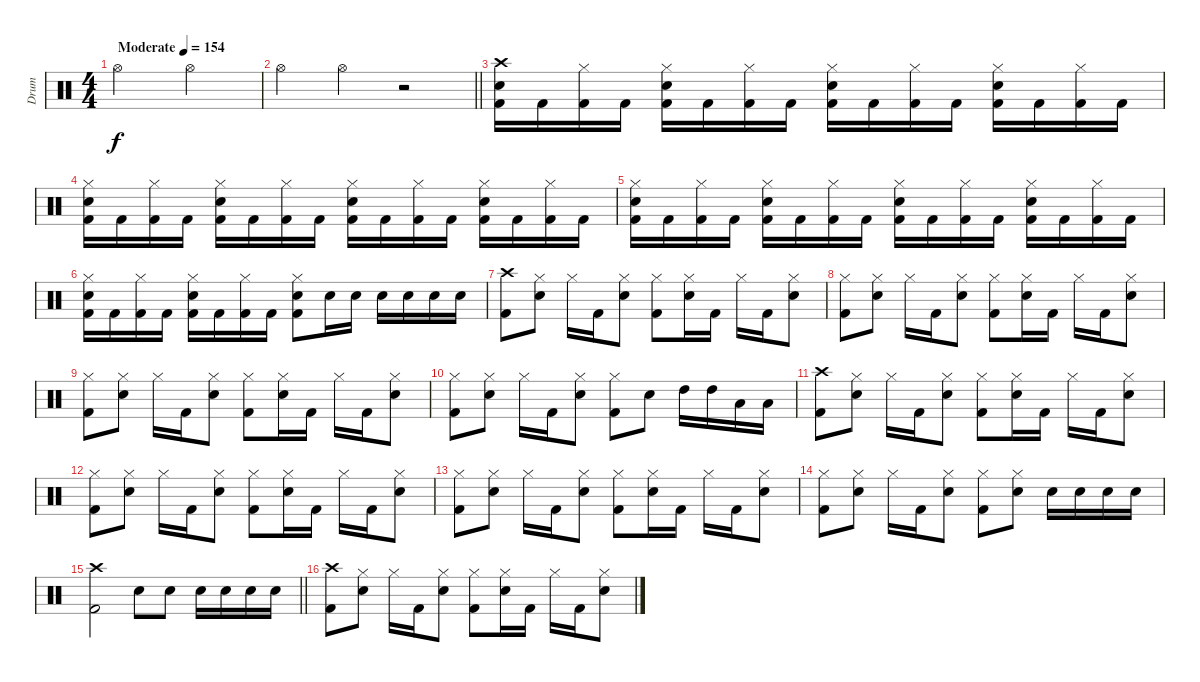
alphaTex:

\track ("Drum" "Drum") {instrument percussion}
\staff {score}
\articulation defaults
\ts (4 4)
\tempo (154 "Moderate")
\clef neutral
\ks c "Hi-Hat (open)".2{dy f} "Hi-Hat (open)".2
|
\barLineRight lightlight "Hi-Hat (open)".4 "Hi-Hat (open)".4
r.2 |
("Crash high (hit)" "Snare (hit) 2" "Kick (hit) 2").16 "Kick (hit) 2".16 ("Hi-Hat (closed)" "Kick (hit) 2").16 "Kick (hit) 2".16 ("Hi-Hat (closed)" "Snare (hit) 2" "Kick (hit) 2").16 "Kick (hit) 2".16 ("Hi-Hat (closed)" "Kick (hit) 2").16 "Kick (hit) 2".16 ("Hi-Hat (closed)" "Snare (hit) 2" "Kick (hit) 2").16 "Kick (hit) 2".16 ("Hi-Hat (closed)" "Kick (hit) 2").16 "Kick (hit) 2".16 ("Hi-Hat (closed)" "Snare (hit) 2" "Kick (hit) 2").16 "Kick (hit) 2".16 ("Hi-Hat (closed)" "Kick (hit) 2").16 "Kick (hit) 2".16 |
("Hi-Hat (closed)" "Snare (hit) 2" "Kick (hit) 2").16 "Kick (hit) 2".16 ("Hi-Hat (closed)" "Kick (hit) 2").16 "Kick (hit) 2".16 ("Hi-Hat (closed)" "Snare (hit) 2" "Kick (hit) 2").16 "Kick (hit) 2".16 ("Hi-Hat (closed)" "Kick (hit) 2").16 "Kick (hit) 2".16 ("Hi-Hat (closed)" "Snare (hit) 2" "Kick (hit) 2").16 "Kick (hit) 2".16 ("Hi-Hat (closed)" "Kick (hit) 2").16 "Kick (hit) 2".16 ("Hi-Hat (closed)" "Snare (hit) 2" "Kick (hit) 2").16 "Kick (hit) 2".16 ("Hi-Hat (closed)" "Kick (hit) 2").16 "Kick (hit) 2".16 |
("Hi-Hat (closed)" "Snare (hit) 2" "Kick (hit) 2").16 "Kick (hit) 2".16 ("Hi-Hat (closed)" "Kick (hit) 2").16 "Kick (hit) 2".16 ("Hi-Hat (closed)" "Snare (hit) 2" "Kick (hit) 2").16 "Kick (hit) 2".16 ("Hi-Hat (closed)" "Kick (hit) 2").16 "Kick (hit) 2".16 ("Hi-Hat (closed)" "Snare (hit) 2" "Kick (hit) 2").16 "Kick (hit) 2".16 ("Hi-Hat (closed)" "Kick (hit) 2").16 "Kick (hit) 2".16 ("Hi-Hat (closed)" "Snare (hit) 2" "Kick (hit) 2").16 "Kick (hit) 2".16 ("Hi-Hat (closed)" "Kick (hit) 2").16 "Kick (hit) 2".16 |
("Hi-Hat (closed)" "Snare (hit) 2" "Kick (hit) 2").16 "Kick (hit) 2".16 ("Hi-Hat (closed)" "Kick (hit) 2").16 "Kick (hit) 2".16 ("Hi-Hat (closed)" "Snare (hit) 2" "Kick (hit) 2").16 "Kick (hit) 2".16 ("Hi-Hat (closed)" "Kick (hit) 2").16 "Kick (hit) 2".16 ("Hi-Hat (closed)" "Snare (hit) 2" "Kick (hit) 2").8 "Snare (hit) 2".16 "Snare (hit) 2".16 "Snare (hit) 2".16 "Snare (hit) 2".16 "Snare (hit) 2".16 "Snare (hit) 2".16 |
("Crash high (hit)" "Kick (hit) 2").8 ("Hi-Hat (closed)" "Snare (hit) 2").8 "Hi-Hat (closed)".16 "Kick (hit) 2".16 ("Hi-Hat (closed)" "Snare (hit) 2").8 ("Hi-Hat (closed)" "Kick (hit) 2").8 ("Hi-Hat (closed)" "Snare (hit) 2").16 "Kick (hit) 2".16 "Hi-Hat (closed)".16 "Kick (hit) 2".16 ("Hi-Hat (closed)" "Snare (hit) 2").8 |
("Hi-Hat (closed)" "Kick (hit) 2").8 ("Hi-Hat (closed)" "Snare (hit) 2").8 "Hi-Hat (closed)".16 "Kick (hit) 2".16 ("Hi-Hat (closed)" "Snare (hit) 2").8 ("Hi-Hat (closed)" "Kick (hit) 2").8 ("Hi-Hat (closed)" "Snare (hit) 2").16 "Kick (hit) 2".16 "Hi-Hat (closed)".16 "Kick (hit) 2".16 ("Hi-Hat (closed)" "Snare (hit) 2").8 |
("Hi-Hat (closed)" "Kick (hit) 2").8 ("Hi-Hat (closed)" "Snare (hit) 2").8 "Hi-Hat (closed)".16 "Kick (hit) 2".16 ("Hi-Hat (closed)" "Snare (hit) 2").8 ("Hi-Hat (closed)" "Kick (hit) 2").8 ("Hi-Hat (closed)" "Snare (hit) 2").16 "Kick (hit) 2".16 "Hi-Hat (closed)".16 "Kick (hit) 2".16 ("Hi-Hat (closed)" "Snare (hit) 2").8 |
("Hi-Hat (closed)" "Kick (hit) 2").8 ("Hi-Hat (closed)" "Snare (hit) 2").8 "Hi-Hat (closed)".16 "Kick (hit) 2".16 ("Hi-Hat (closed)" "Snare (hit) 2").8 ("Hi-Hat (closed)" "Kick (hit) 2").8 "Snare (hit) 2".8 "High Tom (hit)".16 "High Tom (hit)".16 "Low Tom (hit)".16 "Low Tom (hit)".16 |
("Crash high (hit)" "Kick (hit) 2").8 ("Hi-Hat (closed)" "Snare (hit) 2").8 "Hi-Hat (closed)".16 "Kick (hit) 2".16 ("Hi-Hat (closed)" "Snare (hit) 2").8 ("Hi-Hat (closed)" "Kick (hit) 2").8 ("Hi-Hat (closed)" "Snare (hit) 2").16 "Kick (hit) 2".16 "Hi-Hat (closed)".16 "Kick (hit) 2".16 ("Hi-Hat (closed)" "Snare (hit) 2").8 |
("Hi-Hat (closed)" "Kick (hit) 2").8 ("Hi-Hat (closed)" "Snare (hit) 2").8 "Hi-Hat (closed)".16 "Kick (hit) 2".16 ("Hi-Hat (closed)" "Snare (hit) 2").8 ("Hi-Hat (closed)" "Kick (hit) 2").8 ("Hi-Hat (closed)" "Snare (hit) 2").16 "Kick (hit) 2".16 "Hi-Hat (closed)".16 "Kick (hit) 2".16 ("Hi-Hat (closed)" "Snare (hit) 2").8 |
("Hi-Hat (closed)" "Kick (hit) 2").8 ("Hi-Hat (closed)" "Snare (hit) 2").8 "Hi-Hat (closed)".16 "Kick (hit) 2".16 ("Hi-Hat (closed)" "Snare (hit) 2").8 ("Hi-Hat (closed)" "Kick (hit) 2").8 ("Hi-Hat (closed)" "Snare (hit) 2").16 "Kick (hit) 2".16 "Hi-Hat (closed)".16 "Kick (hit) 2".16 ("Hi-Hat (closed)" "Snare (hit) 2").8 |
("Hi-Hat (closed)" "Kick (hit) 2").8 ("Hi-Hat (closed)" "Snare (hit) 2").8 "Hi-Hat (closed)".16 "Kick (hit) 2".16 ("Hi-Hat (closed)" "Snare (hit) 2").8 ("Hi-Hat (closed)" "Kick (hit) 2").8 ("Hi-Hat (closed)" "Snare (hit) 2").8 "Snare (hit) 2".16 "Snare (hit) 2".16 "Snare (hit) 2".16 "Snare (hit) 2".16 |
\barLineRight lightlight
("Crash high (hit)" "Kick (hit) 2").2 "Snare (hit) 2".8 "Snare (hit) 2".8 "Snare (hit) 2".16 "Snare (hit) 2".16 "Snare (hit) 2".16 "Snare (hit) 2".16 |
("Crash high (hit)" "Kick (hit) 2").8 ("Hi-Hat (closed)" "Snare (hit) 2").8 "Hi-Hat (closed)".16 "Kick (hit) 2".16 ("Hi-Hat (closed)" "Snare (hit) 2").8 ("Hi-Hat (closed)" "Kick (hit) 2").8 ("Hi-Hat (closed)" "Snare (hit) 2").16 "Kick (hit) 2".16 "Hi-Hat (closed)".16 "Kick (hit) 2".16 ("Hi-Hat (closed)" "Snare (hit) 2").8
